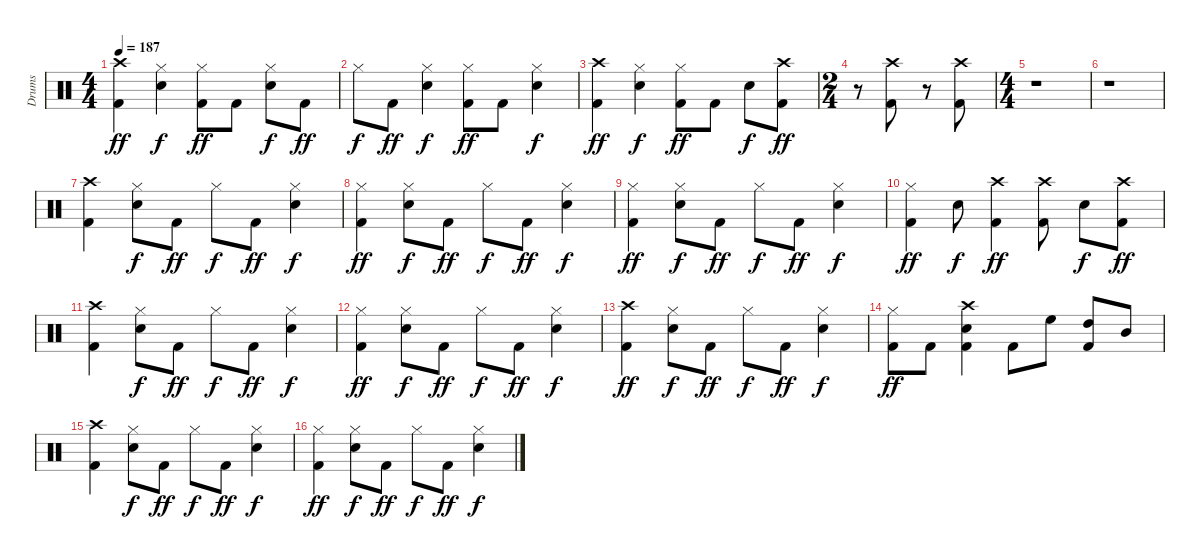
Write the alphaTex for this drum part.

\track ("Drums" "Drums") {instrument percussion}
\staff {score}
\articulation defaults
\ts (4 4)
\tempo 187
\clef neutral
\ks c
("Crash high (hit)" "Kick (hit) 2").4{dy ff} ("Hi-Hat (closed)" "Electric Snare (hit)").4{dy f} ("Hi-Hat (closed)" "Kick (hit) 2").8{dy ff} "Kick (hit) 2".8 ("Hi-Hat (closed)" "Electric Snare (hit)").8{dy f} "Kick (hit) 2".8{dy ff} |
"Hi-Hat (closed)".8{dy f} "Kick (hit) 2".8{dy ff} ("Hi-Hat (closed)" "Electric Snare (hit)").4{dy f} ("Hi-Hat (closed)" "Kick (hit) 2").8{dy ff} "Kick (hit) 2".8 ("Hi-Hat (closed)" "Electric Snare (hit)").4{dy f} |
("Crash high (hit)" "Kick (hit) 2").4{dy ff} ("Hi-Hat (closed)" "Electric Snare (hit)").4{dy f} ("Hi-Hat (closed)" "Kick (hit) 2").8{dy ff} "Kick (hit) 2".8 "Electric Snare (hit)".8{dy f} ("Crash high (hit)" "Kick (hit) 2").8{dy ff} |
\ts (2 4)
r.8 ("Crash high (hit)" "Kick (hit) 2").8 r.8 ("Crash high (hit)" "Kick (hit) 2").8 |
\ts (4 4)
r.1 |
r.1 |
("Crash high (hit)" "Kick (hit) 2").4 ("Hi-Hat (closed)" "Electric Snare (hit)").8{dy f} "Kick (hit) 2".8{dy ff} "Hi-Hat (closed)".8{dy f} "Kick (hit) 2".8{dy ff} ("Hi-Hat (closed)" "Electric Snare (hit)").4{dy f} |
("Hi-Hat (closed)" "Kick (hit) 2").4{dy ff} ("Hi-Hat (closed)" "Electric Snare (hit)").8{dy f} "Kick (hit) 2".8{dy ff} "Hi-Hat (closed)".8{dy f} "Kick (hit) 2".8{dy ff} ("Hi-Hat (closed)" "Electric Snare (hit)").4{dy f} |
("Hi-Hat (closed)" "Kick (hit) 2").4{dy ff} ("Hi-Hat (closed)" "Electric Snare (hit)").8{dy f} "Kick (hit) 2".8{dy ff} "Hi-Hat (closed)".8{dy f} "Kick (hit) 2".8{dy ff} ("Hi-Hat (closed)" "Electric Snare (hit)").4{dy f} |
("Hi-Hat (closed)" "Kick (hit) 2").4{dy ff} "Electric Snare (hit)".8{dy f} ("Crash high (hit)" "Kick (hit) 2").4{dy ff} ("Crash high (hit)" "Kick (hit) 2").8 "Electric Snare (hit)".8{dy f} ("Crash high (hit)" "Kick (hit) 2").8{dy ff} |
("Crash high (hit)" "Kick (hit) 2").4 ("Hi-Hat (closed)" "Electric Snare (hit)").8{dy f} "Kick (hit) 2".8{dy ff} "Hi-Hat (closed)".8{dy f} "Kick (hit) 2".8{dy ff} ("Hi-Hat (closed)" "Electric Snare (hit)").4{dy f} |
("Hi-Hat (closed)" "Kick (hit) 2").4{dy ff} ("Hi-Hat (closed)" "Electric Snare (hit)").8{dy f} "Kick (hit) 2".8{dy ff} "Hi-Hat (closed)".8{dy f} "Kick (hit) 2".8{dy ff} ("Hi-Hat (closed)" "Electric Snare (hit)").4{dy f} |
("Crash high (hit)" "Kick (hit) 2").4{dy ff} ("Hi-Hat (closed)" "Electric Snare (hit)").8{dy f} "Kick (hit) 2".8{dy ff} "Hi-Hat (closed)".8{dy f} "Kick (hit) 2".8{dy ff} ("Hi-Hat (closed)" "Electric Snare (hit)").4{dy f} |
("Hi-Hat (closed)" "Kick (hit) 2").8{dy ff} "Kick (hit) 2".8 ("Crash high (hit)" "Electric Snare (hit)" "Kick (hit) 2").4 "Kick (hit) 2".8 "High Floor Tom (hit)".8 ("High Tom (hit)" "Kick (hit) 2").8 "Mid Tom (hit)".8 |
("Crash high (hit)" "Kick (hit) 2").4 ("Hi-Hat (closed)" "Electric Snare (hit)").8{dy f} "Kick (hit) 2".8{dy ff} "Hi-Hat (closed)".8{dy f} "Kick (hit) 2".8{dy ff} ("Hi-Hat (closed)" "Electric Snare (hit)").4{dy f} |
("Hi-Hat (closed)" "Kick (hit) 2").4{dy ff} ("Hi-Hat (closed)" "Electric Snare (hit)").8{dy f} "Kick (hit) 2".8{dy ff} "Hi-Hat (closed)".8{dy f} "Kick (hit) 2".8{dy ff} ("Hi-Hat (closed)" "Electric Snare (hit)").4{dy f}
